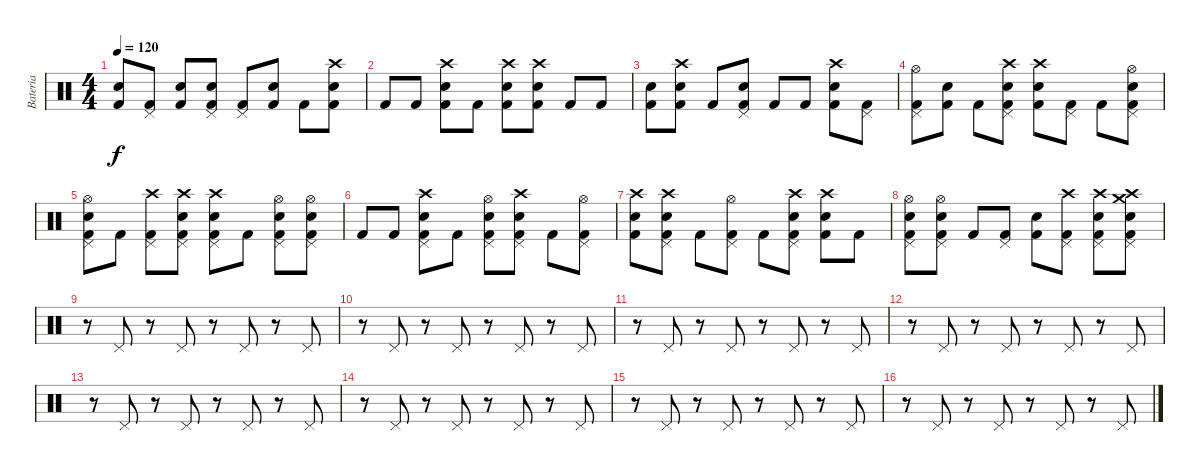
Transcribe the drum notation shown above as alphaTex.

\track ("Bateria" "Bateria") {instrument percussion}
\staff {score}
\articulation defaults
\ts (4 4)
\tempo 120
\clef neutral
\ks c
("Kick (hit) 2" "Snare (hit) 2").8{dy f} ("Kick (hit) 2" "Pedal Hi-Hat (hit)").8 ("Kick (hit) 2" "Snare (hit) 2").8 ("Kick (hit) 2" "Snare (hit) 2" "Pedal Hi-Hat (hit)").8 ("Kick (hit) 2" "Pedal Hi-Hat (hit)").8 ("Kick (hit) 2" "Snare (hit) 2").8 "Kick (hit) 2".8 ("Kick (hit) 2" "Snare (hit) 2" "Crash high (hit)").8 |
"Kick (hit) 2".8 "Kick (hit) 2".8 ("Kick (hit) 2" "Snare (hit) 2" "Crash high (hit)").8 "Kick (hit) 2".8 ("Kick (hit) 2" "Snare (hit) 2" "Crash high (hit)").8 ("Kick (hit) 2" "Snare (hit) 2" "Crash high (hit)").8 "Kick (hit) 2".8 "Kick (hit) 2".8 |
("Kick (hit) 2" "Snare (hit) 2").8 ("Kick (hit) 2" "Snare (hit) 2" "Crash high (hit)").8 "Kick (hit) 2".8 ("Kick (hit) 2" "Snare (hit) 2" "Pedal Hi-Hat (hit)").8 "Kick (hit) 2".8 "Kick (hit) 2".8 ("Kick (hit) 2" "Snare (hit) 2" "Crash high (hit)").8 ("Kick (hit) 2" "Pedal Hi-Hat (hit)").8 |
("Kick (hit) 2" "Pedal Hi-Hat (hit)" "Hi-Hat (open)").8 ("Kick (hit) 2" "Snare (hit) 2").8 "Kick (hit) 2".8 ("Kick (hit) 2" "Snare (hit) 2" "Pedal Hi-Hat (hit)" "Crash high (hit)").8 ("Kick (hit) 2" "Snare (hit) 2" "Crash high (hit)").8 ("Kick (hit) 2" "Pedal Hi-Hat (hit)").8 "Kick (hit) 2".8 ("Kick (hit) 2" "Snare (hit) 2" "Pedal Hi-Hat (hit)" "Hi-Hat (open)").8 |
("Kick (hit) 2" "Snare (hit) 2" "Pedal Hi-Hat (hit)" "Hi-Hat (open)").8 "Kick (hit) 2".8 ("Kick (hit) 2" "Pedal Hi-Hat (hit)" "Crash high (hit)").8 ("Kick (hit) 2" "Snare (hit) 2" "Pedal Hi-Hat (hit)" "Crash high (hit)").8 ("Kick (hit) 2" "Snare (hit) 2" "Pedal Hi-Hat (hit)" "Crash high (hit)").8 "Kick (hit) 2".8 ("Kick (hit) 2" "Snare (hit) 2" "Pedal Hi-Hat (hit)" "Hi-Hat (open)").8 ("Kick (hit) 2" "Snare (hit) 2" "Pedal Hi-Hat (hit)" "Hi-Hat (open)").8 |
"Kick (hit) 2".8 "Kick (hit) 2".8 ("Kick (hit) 2" "Snare (hit) 2" "Pedal Hi-Hat (hit)" "Crash high (hit)").8 "Kick (hit) 2".8 ("Kick (hit) 2" "Snare (hit) 2" "Pedal Hi-Hat (hit)" "Hi-Hat (open)").8 ("Kick (hit) 2" "Snare (hit) 2" "Pedal Hi-Hat (hit)" "Crash high (hit)").8 "Kick (hit) 2".8 ("Kick (hit) 2" "Pedal Hi-Hat (hit)" "Hi-Hat (open)").8 |
("Kick (hit) 2" "Snare (hit) 2" "Crash high (hit)").8 ("Kick (hit) 2" "Snare (hit) 2" "Pedal Hi-Hat (hit)" "Crash high (hit)").8 "Kick (hit) 2".8 ("Kick (hit) 2" "Pedal Hi-Hat (hit)" "Hi-Hat (open)").8 "Kick (hit) 2".8 ("Kick (hit) 2" "Snare (hit) 2" "Pedal Hi-Hat (hit)" "Crash high (hit)").8 ("Kick (hit) 2" "Snare (hit) 2" "Crash high (hit)").8 "Kick (hit) 2".8 |
("Kick (hit) 2" "Snare (hit) 2" "Pedal Hi-Hat (hit)" "Hi-Hat (open)").8 ("Kick (hit) 2" "Snare (hit) 2" "Pedal Hi-Hat (hit)" "Hi-Hat (open)").8 "Kick (hit) 2".8 ("Kick (hit) 2" "Pedal Hi-Hat (hit)").8 ("Kick (hit) 2" "Snare (hit) 2").8 ("Kick (hit) 2" "Pedal Hi-Hat (hit)" "Crash high (hit)").8 ("Kick (hit) 2" "Snare (hit) 2" "Pedal Hi-Hat (hit)" "Crash high (hit)").8 ("Kick (hit) 2" "Crash medium (hit)" "Snare (hit) 2" "Pedal Hi-Hat (hit)" "Crash high (hit)").8 |
r.8 "Pedal Hi-Hat (hit)".8 r.8 "Pedal Hi-Hat (hit)".8 r.8 "Pedal Hi-Hat (hit)".8 r.8 "Pedal Hi-Hat (hit)".8 |
r.8 "Pedal Hi-Hat (hit)".8 r.8 "Pedal Hi-Hat (hit)".8 r.8 "Pedal Hi-Hat (hit)".8 r.8 "Pedal Hi-Hat (hit)".8 |
r.8 "Pedal Hi-Hat (hit)".8 r.8 "Pedal Hi-Hat (hit)".8 r.8 "Pedal Hi-Hat (hit)".8 r.8 "Pedal Hi-Hat (hit)".8 |
r.8 "Pedal Hi-Hat (hit)".8 r.8 "Pedal Hi-Hat (hit)".8 r.8 "Pedal Hi-Hat (hit)".8 r.8 "Pedal Hi-Hat (hit)".8 |
r.8 "Pedal Hi-Hat (hit)".8 r.8 "Pedal Hi-Hat (hit)".8 r.8 "Pedal Hi-Hat (hit)".8 r.8 "Pedal Hi-Hat (hit)".8 |
r.8 "Pedal Hi-Hat (hit)".8 r.8 "Pedal Hi-Hat (hit)".8 r.8 "Pedal Hi-Hat (hit)".8 r.8 "Pedal Hi-Hat (hit)".8 |
r.8 "Pedal Hi-Hat (hit)".8 r.8 "Pedal Hi-Hat (hit)".8 r.8 "Pedal Hi-Hat (hit)".8 r.8 "Pedal Hi-Hat (hit)".8 |
r.8 "Pedal Hi-Hat (hit)".8 r.8 "Pedal Hi-Hat (hit)".8 r.8 "Pedal Hi-Hat (hit)".8 r.8 "Pedal Hi-Hat (hit)".8
